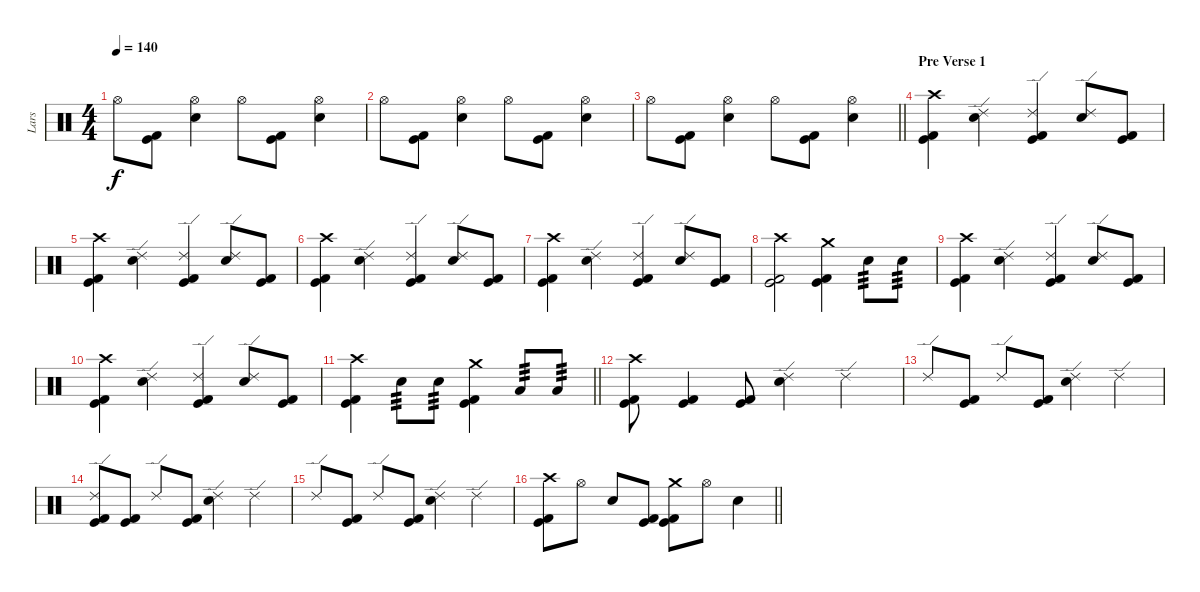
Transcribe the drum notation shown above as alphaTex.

\track ("Lars" "Lars") {instrument percussion}
\staff {score}
\articulation defaults
\ts (4 4)
\tempo 140
\clef neutral
\ks c "Hi-Hat (open)".8{dy f}
("Kick (hit)" "Kick (hit) 2").8 ("Hi-Hat (open)" "Electric Snare (hit)").4 "Hi-Hat (open)".8 ("Kick (hit)" "Kick (hit) 2").8 ("Hi-Hat (open)" "Electric Snare (hit)").4 |
"Hi-Hat (open)".8 ("Kick (hit)" "Kick (hit) 2").8 ("Hi-Hat (open)" "Electric Snare (hit)").4 "Hi-Hat (open)".8 ("Kick (hit)" "Kick (hit) 2").8 ("Hi-Hat (open)" "Electric Snare (hit)").4 |
\barLineRight lightlight "Hi-Hat (open)".8
("Kick (hit)" "Kick (hit) 2").8 ("Hi-Hat (open)" "Electric Snare (hit)").4 "Hi-Hat (open)".8 ("Kick (hit)" "Kick (hit) 2").8 ("Hi-Hat (open)" "Electric Snare (hit)").4 |
\section ("" "Pre Verse 1")
("Crash high (hit)" "Kick (hit)" "Kick (hit) 2").4 ("Ride (edge) 2" "Electric Snare (hit)").4 ("Ride (edge) 2" "Kick (hit)" "Kick (hit) 2").4 ("Ride (edge) 2" "Electric Snare (hit)").8 ("Kick (hit)" "Kick (hit) 2").8 |
("Crash high (hit)" "Kick (hit)" "Kick (hit) 2").4 ("Ride (edge) 2" "Electric Snare (hit)").4 ("Ride (edge) 2" "Kick (hit)" "Kick (hit) 2").4 ("Ride (edge) 2" "Electric Snare (hit)").8 ("Kick (hit)" "Kick (hit) 2").8 |
("Crash high (hit)" "Kick (hit)" "Kick (hit) 2").4 ("Ride (edge) 2" "Electric Snare (hit)").4 ("Ride (edge) 2" "Kick (hit)" "Kick (hit) 2").4 ("Ride (edge) 2" "Electric Snare (hit)").8 ("Kick (hit)" "Kick (hit) 2").8 |
("Crash high (hit)" "Kick (hit)" "Kick (hit) 2").4 ("Ride (edge) 2" "Electric Snare (hit)").4 ("Ride (edge) 2" "Kick (hit)" "Kick (hit) 2").4 ("Ride (edge) 2" "Electric Snare (hit)").8 ("Kick (hit)" "Kick (hit) 2").8 |
("Crash high (hit)" "Kick (hit)" "Kick (hit) 2").2 ("Crash medium (hit)" "Kick (hit)" "Kick (hit) 2").4 "Electric Snare (hit)".8{tp 3} "Electric Snare (hit)".8{tp 3} |
("Crash high (hit)" "Kick (hit)" "Kick (hit) 2").4 ("Ride (edge) 2" "Electric Snare (hit)").4 ("Ride (edge) 2" "Kick (hit)" "Kick (hit) 2").4 ("Ride (edge) 2" "Electric Snare (hit)").8 ("Kick (hit)" "Kick (hit) 2").8 |
("Crash high (hit)" "Kick (hit)" "Kick (hit) 2").4 ("Ride (edge) 2" "Electric Snare (hit)").4 ("Ride (edge) 2" "Kick (hit)" "Kick (hit) 2").4 ("Ride (edge) 2" "Electric Snare (hit)").8 ("Kick (hit)" "Kick (hit) 2").8 |
\barLineRight lightlight
("Crash high (hit)" "Kick (hit)" "Kick (hit) 2").4 "Electric Snare (hit)".8{tp 3} "Electric Snare (hit)".8{tp 3} ("Crash medium (hit)" "Kick (hit)" "Kick (hit) 2").4 "Low Tom (hit)".8{tp 3} "Low Tom (hit)".8{tp 3} |
\section ("" "")
("Crash high (hit)" "Kick (hit)" "Kick (hit) 2").8 ("Kick (hit)" "Kick (hit) 2").4 ("Kick (hit)" "Kick (hit) 2").8 ("Ride (edge) 2" "Electric Snare (hit)").4 "Ride (edge) 2".4 |
"Ride (edge) 2".8 ("Kick (hit)" "Kick (hit) 2").8 "Ride (edge) 2".8 ("Kick (hit)" "Kick (hit) 2").8 ("Ride (edge) 2" "Electric Snare (hit)").4 "Ride (edge) 2".4 |
("Ride (edge) 2" "Kick (hit)" "Kick (hit) 2").8 ("Kick (hit)" "Kick (hit) 2").8 "Ride (edge) 2".8 ("Kick (hit)" "Kick (hit) 2").8 ("Ride (edge) 2" "Electric Snare (hit)").4 "Ride (edge) 2".4 |
"Ride (edge) 2".8 ("Kick (hit)" "Kick (hit) 2").8 "Ride (edge) 2".8 ("Kick (hit)" "Kick (hit) 2").8 ("Ride (edge) 2" "Electric Snare (hit)").4 "Ride (edge) 2".4 |
\barLineRight lightlight
("Crash high (hit)" "Kick (hit)" "Kick (hit) 2").8 "Hi-Hat (open)".8 "Electric Snare (hit)".8 ("Kick (hit)" "Kick (hit) 2").8 ("Crash medium (hit)" "Kick (hit)" "Kick (hit) 2").8 "Hi-Hat (open)".8 "Electric Snare (hit)".4
